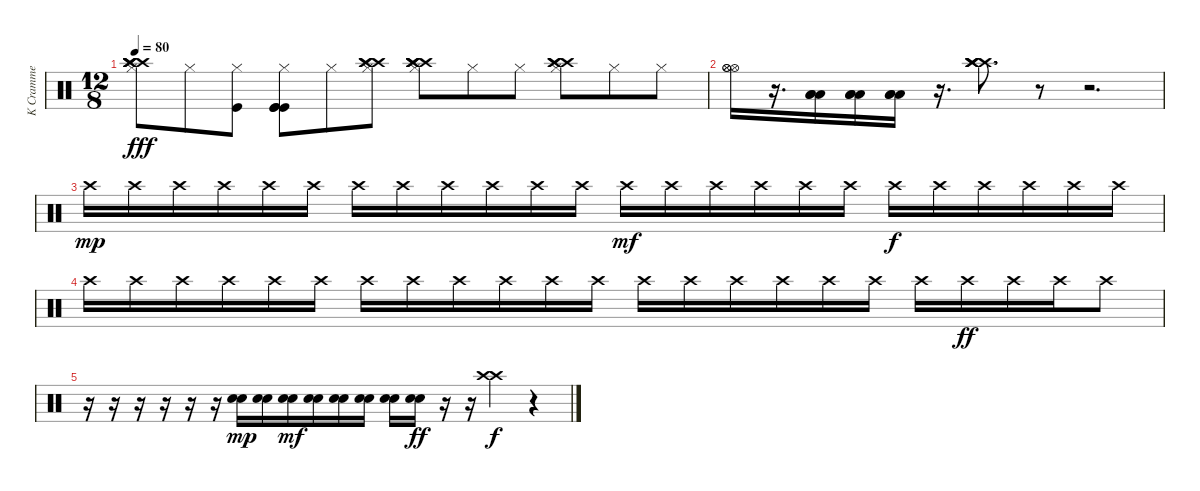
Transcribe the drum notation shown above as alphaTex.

\track ("K Cramme" "K Cramme") {instrument percussion}
\staff {score}
\articulation defaults
\ts (12 8)
\tempo 80
\clef neutral
\ks c
("Crash high (hit)" "Crash high (hit)" "Crash high (hit)" "Crash high (hit)" "Hi-Hat (closed)").8{dy fff} "Hi-Hat (closed)".8 ("Kick (hit)" "Hi-Hat (closed)").8 ("Kick (hit)" "Kick (hit)" "Kick (hit)" "Hi-Hat (closed)").8 "Hi-Hat (closed)".8 ("Crash high (hit)" "Crash high (hit)" "Crash high (hit)" "Hi-Hat (closed)").8 ("Crash high (hit)" "Crash high (hit)" "Crash high (hit)" "Crash high (hit)" "Hi-Hat (closed)").8 "Hi-Hat (closed)".8 "Hi-Hat (closed)".8 ("Crash high (hit)" "Crash high (hit)" "Crash high (hit)" "Hi-Hat (closed)").8 "Hi-Hat (closed)".8 "Hi-Hat (closed)".8 |
("Hi-Hat (open)" "Hi-Hat (open)" "Hi-Hat (open)").16 r.16{d} ("Low Floor Tom (hit)" "Low Floor Tom (hit)" "Low Floor Tom (hit)").16 ("Low Floor Tom (hit)" "Low Floor Tom (hit)" "Low Floor Tom (hit)").16 ("Low Floor Tom (hit)" "Low Floor Tom (hit)" "Low Floor Tom (hit)").16 r.16{d} ("Crash high (hit)" "Crash high (hit)" "Crash high (hit)" "Crash high (hit)").8{d} r.8 r.2{d} |
"Crash high (hit)".16{dy mp} "Crash high (hit)".16 "Crash high (hit)".16 "Crash high (hit)".16 "Crash high (hit)".16 "Crash high (hit)".16 "Crash high (hit)".16 "Crash high (hit)".16 "Crash high (hit)".16 "Crash high (hit)".16 "Crash high (hit)".16 "Crash high (hit)".16 "Crash high (hit)".16{dy mf} "Crash high (hit)".16 "Crash high (hit)".16 "Crash high (hit)".16 "Crash high (hit)".16 "Crash high (hit)".16 "Crash high (hit)".16{dy f} "Crash high (hit)".16 "Crash high (hit)".16 "Crash high (hit)".16 "Crash high (hit)".16 "Crash high (hit)".16 |
"Crash high (hit)".16 "Crash high (hit)".16 "Crash high (hit)".16 "Crash high (hit)".16 "Crash high (hit)".16 "Crash high (hit)".16 "Crash high (hit)".16 "Crash high (hit)".16 "Crash high (hit)".16 "Crash high (hit)".16 "Crash high (hit)".16 "Crash high (hit)".16 "Crash high (hit)".16 "Crash high (hit)".16 "Crash high (hit)".16 "Crash high (hit)".16 "Crash high (hit)".16 "Crash high (hit)".16 "Crash high (hit)".16 "Crash high (hit)".16{dy ff} "Crash high (hit)".16 "Crash high (hit)".16 "Crash high (hit)".8 |
r.16 r.16 r.16 r.16 r.16 r.16 ("Snare (hit) 2" "Snare (hit) 2").16{dy mp} ("Snare (hit) 2" "Snare (hit) 2").16 ("Snare (hit) 2" "Snare (hit) 2").16{dy mf} ("Snare (hit) 2" "Snare (hit) 2").16 ("Snare (hit) 2" "Snare (hit) 2").16 ("Snare (hit) 2" "Snare (hit) 2").16 ("Snare (hit) 2" "Snare (hit) 2").16 ("Snare (hit) 2" "Snare (hit) 2").16{dy ff} r.16 r.16 ("Crash high (hit)" "Crash high (hit)").4{dy f} r.4
